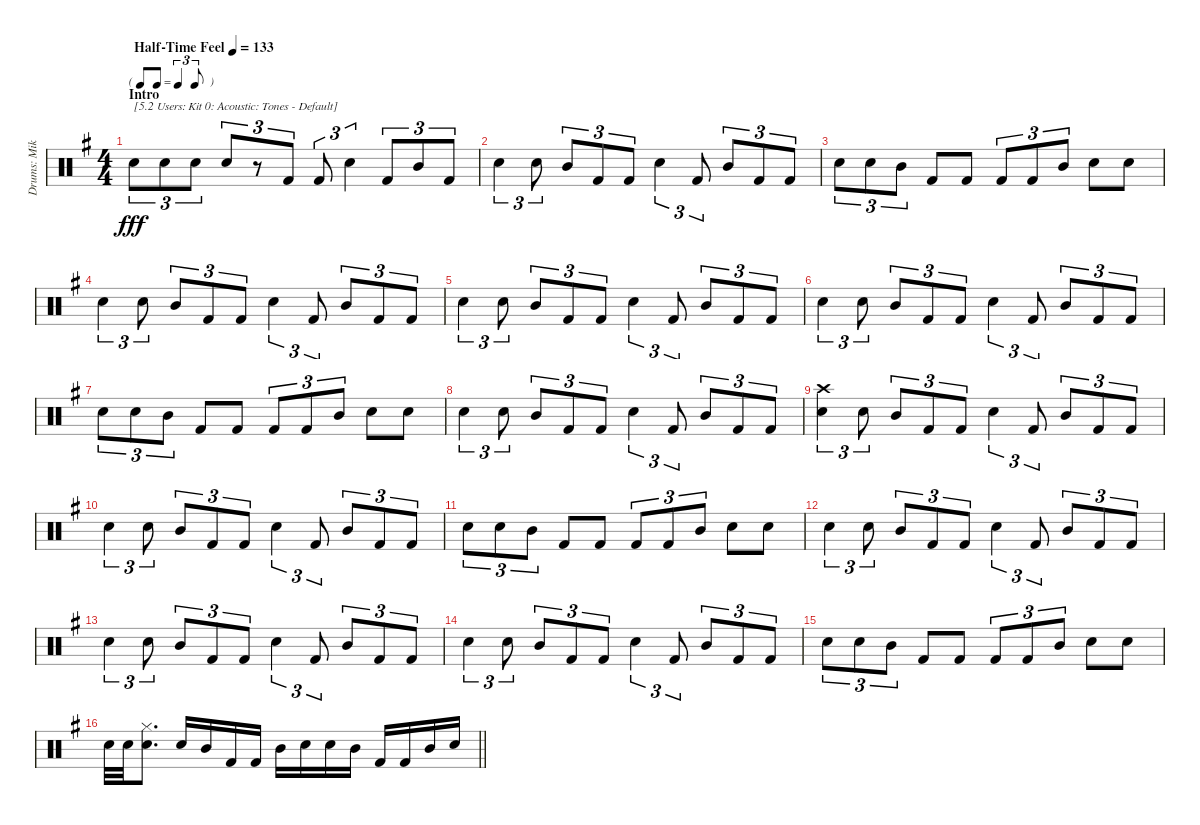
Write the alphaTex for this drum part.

\track ("Drums: Mike" "Drums: Mik") {instrument percussion}
\staff {score}
\articulation defaults
\ts (4 4)
\tf triplet8th
\section ("" "Intro")
\tempo (133 "Half-Time Feel")
\clef neutral
\ks g "Snare (hit) 2".8{tu (3 2) txt "[5.2 Users: Kit 0: Acoustic: Tones - Default]" dy fff} "Snare (hit) 2".8{tu (3 2)} "Snare (hit) 2".8{tu (3 2)} "Electric Snare (hit)".8{tu (3 2)}
r.8{tu (3 2)} "Kick (hit) 2".8{tu (3 2)} "Kick (hit) 2".8{tu (3 2)} "Electric Snare (hit)".4{tu (3 2)} "Kick (hit) 2".8{tu (3 2)} "Mid Tom (hit)".8{tu (3 2)} "Kick (hit) 2".8{tu (3 2)} |
"Electric Snare (hit)".4{tu (3 2)} "Electric Snare (hit)".8{tu (3 2)} "Mid Tom (hit)".8{tu (3 2)} "Kick (hit) 2".8{tu (3 2)} "Kick (hit) 2".8{tu (3 2)} "Electric Snare (hit)".4{tu (3 2)} "Kick (hit) 2".8{tu (3 2)} "Mid Tom (hit)".8{tu (3 2)} "Kick (hit) 2".8{tu (3 2)} "Kick (hit) 2".8{tu (3 2)} |
"Electric Snare (hit)".8{tu (3 2)} "Electric Snare (hit)".8{tu (3 2)} "Mid Tom (hit)".8{tu (3 2)} "Kick (hit) 2".8 "Kick (hit) 2".8 "Kick (hit) 2".8{tu (3 2)} "Kick (hit) 2".8{tu (3 2)} "Mid Tom (hit)".8{tu (3 2)} "Electric Snare (hit)".8 "Electric Snare (hit)".8 |
"Electric Snare (hit)".4{tu (3 2)} "Electric Snare (hit)".8{tu (3 2)} "Mid Tom (hit)".8{tu (3 2)} "Kick (hit) 2".8{tu (3 2)} "Kick (hit) 2".8{tu (3 2)} "Electric Snare (hit)".4{tu (3 2)} "Kick (hit) 2".8{tu (3 2)} "Mid Tom (hit)".8{tu (3 2)} "Kick (hit) 2".8{tu (3 2)} "Kick (hit) 2".8{tu (3 2)} |
"Electric Snare (hit)".4{tu (3 2)} "Electric Snare (hit)".8{tu (3 2)} "Mid Tom (hit)".8{tu (3 2)} "Kick (hit) 2".8{tu (3 2)} "Kick (hit) 2".8{tu (3 2)} "Electric Snare (hit)".4{tu (3 2)} "Kick (hit) 2".8{tu (3 2)} "Mid Tom (hit)".8{tu (3 2)} "Kick (hit) 2".8{tu (3 2)} "Kick (hit) 2".8{tu (3 2)} |
"Electric Snare (hit)".4{tu (3 2)} "Electric Snare (hit)".8{tu (3 2)} "Mid Tom (hit)".8{tu (3 2)} "Kick (hit) 2".8{tu (3 2)} "Kick (hit) 2".8{tu (3 2)} "Electric Snare (hit)".4{tu (3 2)} "Kick (hit) 2".8{tu (3 2)} "Mid Tom (hit)".8{tu (3 2)} "Kick (hit) 2".8{tu (3 2)} "Kick (hit) 2".8{tu (3 2)} |
"Electric Snare (hit)".8{tu (3 2)} "Electric Snare (hit)".8{tu (3 2)} "Mid Tom (hit)".8{tu (3 2)} "Kick (hit) 2".8 "Kick (hit) 2".8 "Kick (hit) 2".8{tu (3 2)} "Kick (hit) 2".8{tu (3 2)} "Mid Tom (hit)".8{tu (3 2)} "Electric Snare (hit)".8 "Electric Snare (hit)".8 |
"Electric Snare (hit)".4{tu (3 2)} "Electric Snare (hit)".8{tu (3 2)} "Mid Tom (hit)".8{tu (3 2)} "Kick (hit) 2".8{tu (3 2)} "Kick (hit) 2".8{tu (3 2)} "Electric Snare (hit)".4{tu (3 2)} "Kick (hit) 2".8{tu (3 2)} "Mid Tom (hit)".8{tu (3 2)} "Kick (hit) 2".8{tu (3 2)} "Kick (hit) 2".8{tu (3 2)} |
("Crash high (hit)" "Electric Snare (hit)").4{tu (3 2)} "Electric Snare (hit)".8{tu (3 2)} "Mid Tom (hit)".8{tu (3 2)} "Kick (hit) 2".8{tu (3 2)} "Kick (hit) 2".8{tu (3 2)} "Electric Snare (hit)".4{tu (3 2)} "Kick (hit) 2".8{tu (3 2)} "Mid Tom (hit)".8{tu (3 2)} "Kick (hit) 2".8{tu (3 2)} "Kick (hit) 2".8{tu (3 2)} |
"Electric Snare (hit)".4{tu (3 2)} "Electric Snare (hit)".8{tu (3 2)} "Mid Tom (hit)".8{tu (3 2)} "Kick (hit) 2".8{tu (3 2)} "Kick (hit) 2".8{tu (3 2)} "Electric Snare (hit)".4{tu (3 2)} "Kick (hit) 2".8{tu (3 2)} "Mid Tom (hit)".8{tu (3 2)} "Kick (hit) 2".8{tu (3 2)} "Kick (hit) 2".8{tu (3 2)} |
"Electric Snare (hit)".8{tu (3 2)} "Electric Snare (hit)".8{tu (3 2)} "Mid Tom (hit)".8{tu (3 2)} "Kick (hit) 2".8 "Kick (hit) 2".8 "Kick (hit) 2".8{tu (3 2)} "Kick (hit) 2".8{tu (3 2)} "Mid Tom (hit)".8{tu (3 2)} "Electric Snare (hit)".8 "Electric Snare (hit)".8 |
"Electric Snare (hit)".4{tu (3 2)} "Electric Snare (hit)".8{tu (3 2)} "Mid Tom (hit)".8{tu (3 2)} "Kick (hit) 2".8{tu (3 2)} "Kick (hit) 2".8{tu (3 2)} "Electric Snare (hit)".4{tu (3 2)} "Kick (hit) 2".8{tu (3 2)} "Mid Tom (hit)".8{tu (3 2)} "Kick (hit) 2".8{tu (3 2)} "Kick (hit) 2".8{tu (3 2)} |
"Electric Snare (hit)".4{tu (3 2)} "Electric Snare (hit)".8{tu (3 2)} "Mid Tom (hit)".8{tu (3 2)} "Kick (hit) 2".8{tu (3 2)} "Kick (hit) 2".8{tu (3 2)} "Electric Snare (hit)".4{tu (3 2)} "Kick (hit) 2".8{tu (3 2)} "Mid Tom (hit)".8{tu (3 2)} "Kick (hit) 2".8{tu (3 2)} "Kick (hit) 2".8{tu (3 2)} |
"Electric Snare (hit)".4{tu (3 2)} "Electric Snare (hit)".8{tu (3 2)} "Mid Tom (hit)".8{tu (3 2)} "Kick (hit) 2".8{tu (3 2)} "Kick (hit) 2".8{tu (3 2)} "Electric Snare (hit)".4{tu (3 2)} "Kick (hit) 2".8{tu (3 2)} "Mid Tom (hit)".8{tu (3 2)} "Kick (hit) 2".8{tu (3 2)} "Kick (hit) 2".8{tu (3 2)} |
"Electric Snare (hit)".8{tu (3 2)} "Electric Snare (hit)".8{tu (3 2)} "Mid Tom (hit)".8{tu (3 2)} "Kick (hit) 2".8 "Kick (hit) 2".8 "Kick (hit) 2".8{tu (3 2)} "Kick (hit) 2".8{tu (3 2)} "Mid Tom (hit)".8{tu (3 2)} "Electric Snare (hit)".8 "Electric Snare (hit)".8 |
\barLineRight lightlight "Electric Snare (hit)".32 "Electric Snare (hit)".32
("Hi-Hat (closed)" "Electric Snare (hit)").8{d} "Electric Snare (hit)".16 "Mid Tom (hit)".16 "Kick (hit) 2".16 "Kick (hit) 2".16 "Mid Tom (hit)".16 "Electric Snare (hit)".16 "Electric Snare (hit)".16 "Mid Tom (hit)".16 "Kick (hit) 2".16 "Kick (hit) 2".16 "Mid Tom (hit)".16 "Electric Snare (hit)".16
